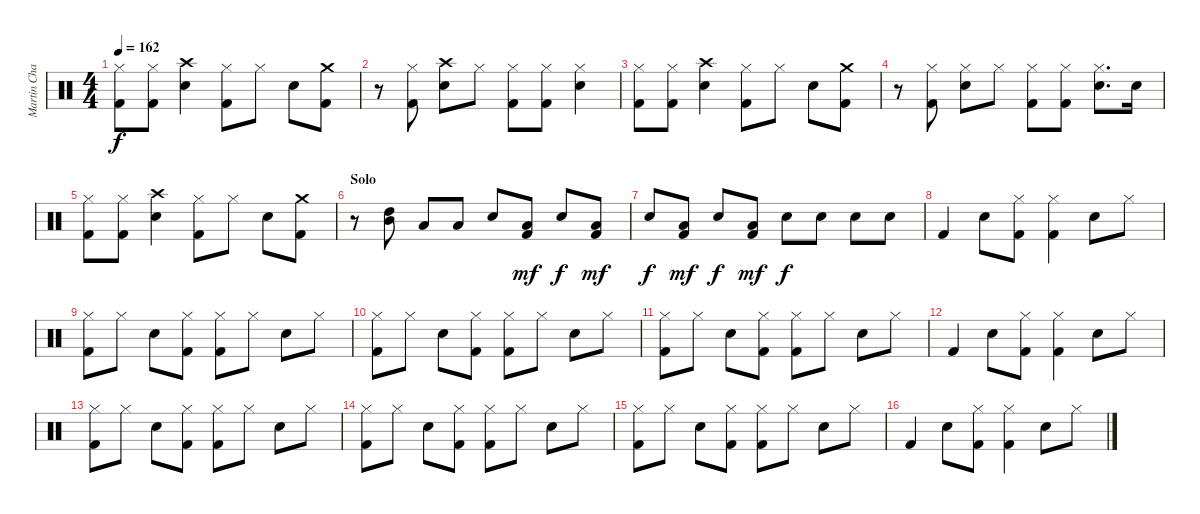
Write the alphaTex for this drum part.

\track ("Martin Chambers" "Martin Cha") {instrument percussion}
\staff {score}
\articulation defaults
\ts (4 4)
\tempo 162
\clef neutral
\ks c
("Hi-Hat (closed)" "Kick (hit) 2").8{dy f} ("Hi-Hat (closed)" "Kick (hit) 2").8 ("Crash high (hit)" "Snare (hit) 2").4 ("Hi-Hat (closed)" "Kick (hit) 2").8 "Hi-Hat (closed)".8 "Snare (hit) 2".8 ("Crash medium (hit)" "Kick (hit) 2").8 |
r.8 ("Hi-Hat (closed)" "Kick (hit) 2").8 ("Crash high (hit)" "Snare (hit) 2").8 "Hi-Hat (closed)".8 ("Hi-Hat (closed)" "Kick (hit) 2").8 ("Hi-Hat (closed)" "Kick (hit) 2").8 ("Hi-Hat (closed)" "Snare (hit) 2").4 |
("Hi-Hat (closed)" "Kick (hit) 2").8 ("Hi-Hat (closed)" "Kick (hit) 2").8 ("Crash high (hit)" "Snare (hit) 2").4 ("Hi-Hat (closed)" "Kick (hit) 2").8 "Hi-Hat (closed)".8 "Snare (hit) 2".8 ("Crash medium (hit)" "Kick (hit) 2").8 |
r.8 ("Hi-Hat (closed)" "Kick (hit) 2").8 ("Hi-Hat (closed)" "Snare (hit) 2").8 "Hi-Hat (closed)".8 ("Hi-Hat (closed)" "Kick (hit) 2").8 ("Hi-Hat (closed)" "Kick (hit) 2").8 ("Hi-Hat (closed)" "Snare (hit) 2").8{d} "Snare (hit) 2".16 |
("Hi-Hat (closed)" "Kick (hit) 2").8 ("Hi-Hat (closed)" "Kick (hit) 2").8 ("Crash high (hit)" "Snare (hit) 2").4 ("Hi-Hat (closed)" "Kick (hit) 2").8 "Hi-Hat (closed)".8 "Snare (hit) 2".8 ("Crash medium (hit)" "Kick (hit) 2").8 |
\section ("" "Solo")
r.8 ("Mid Tom (hit)" "High Tom (hit)").8 "Low Tom (hit)".8 "Low Tom (hit)".8 "Snare (hit) 2".8 ("Low Tom (hit)" "Kick (hit) 2").8{dy mf} "Snare (hit) 2".8{dy f} ("Low Tom (hit)" "Kick (hit) 2").8{dy mf} |
"Snare (hit) 2".8{dy f} ("Low Tom (hit)" "Kick (hit) 2").8{dy mf} "Snare (hit) 2".8{dy f} ("Low Tom (hit)" "Kick (hit) 2").8{dy mf} "Snare (hit) 2".8{dy f} "Snare (hit) 2".8 "Snare (hit) 2".8 "Snare (hit) 2".8 |
"Kick (hit) 2".4 "Snare (hit) 2".8 ("Hi-Hat (closed)" "Kick (hit) 2").8 ("Hi-Hat (closed)" "Kick (hit) 2").4 "Snare (hit) 2".8 "Hi-Hat (closed)".8 |
("Hi-Hat (closed)" "Kick (hit) 2").8 "Hi-Hat (closed)".8 "Snare (hit) 2".8 ("Hi-Hat (closed)" "Kick (hit) 2").8 ("Hi-Hat (closed)" "Kick (hit) 2").8 "Hi-Hat (closed)".8 "Snare (hit) 2".8 "Hi-Hat (closed)".8 |
("Hi-Hat (closed)" "Kick (hit) 2").8 "Hi-Hat (closed)".8 "Snare (hit) 2".8 ("Hi-Hat (closed)" "Kick (hit) 2").8 ("Hi-Hat (closed)" "Kick (hit) 2").8 "Hi-Hat (closed)".8 "Snare (hit) 2".8 "Hi-Hat (closed)".8 |
("Hi-Hat (closed)" "Kick (hit) 2").8 "Hi-Hat (closed)".8 "Snare (hit) 2".8 ("Hi-Hat (closed)" "Kick (hit) 2").8 ("Hi-Hat (closed)" "Kick (hit) 2").8 "Hi-Hat (closed)".8 "Snare (hit) 2".8 "Hi-Hat (closed)".8 |
"Kick (hit) 2".4 "Snare (hit) 2".8 ("Hi-Hat (closed)" "Kick (hit) 2").8 ("Hi-Hat (closed)" "Kick (hit) 2").4 "Snare (hit) 2".8 "Hi-Hat (closed)".8 |
("Hi-Hat (closed)" "Kick (hit) 2").8 "Hi-Hat (closed)".8 "Snare (hit) 2".8 ("Hi-Hat (closed)" "Kick (hit) 2").8 ("Hi-Hat (closed)" "Kick (hit) 2").8 "Hi-Hat (closed)".8 "Snare (hit) 2".8 "Hi-Hat (closed)".8 |
("Hi-Hat (closed)" "Kick (hit) 2").8 "Hi-Hat (closed)".8 "Snare (hit) 2".8 ("Hi-Hat (closed)" "Kick (hit) 2").8 ("Hi-Hat (closed)" "Kick (hit) 2").8 "Hi-Hat (closed)".8 "Snare (hit) 2".8 "Hi-Hat (closed)".8 |
("Hi-Hat (closed)" "Kick (hit) 2").8 "Hi-Hat (closed)".8 "Snare (hit) 2".8 ("Hi-Hat (closed)" "Kick (hit) 2").8 ("Hi-Hat (closed)" "Kick (hit) 2").8 "Hi-Hat (closed)".8 "Snare (hit) 2".8 "Hi-Hat (closed)".8 |
"Kick (hit) 2".4 "Snare (hit) 2".8 ("Hi-Hat (closed)" "Kick (hit) 2").8 ("Hi-Hat (closed)" "Kick (hit) 2").4 "Snare (hit) 2".8 "Hi-Hat (closed)".8
